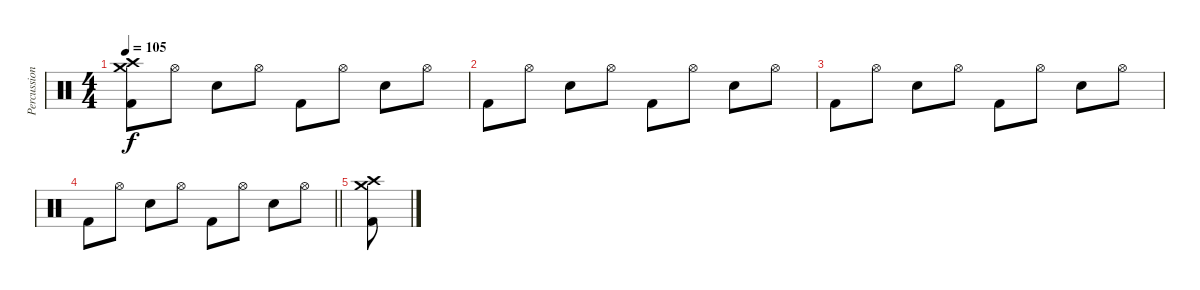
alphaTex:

\track ("Percussion" "Percussion") {instrument percussion}
\staff {score}
\articulation defaults
\ts (4 4)
\tempo 105
\clef neutral
\ks c
("Crash high (hit)" "Crash medium (hit)" "Kick (hit) 2").8{dy f} "Hi-Hat (open)".8 "Snare (hit) 2".8 "Hi-Hat (open)".8 "Kick (hit) 2".8 "Hi-Hat (open)".8 "Snare (hit) 2".8 "Hi-Hat (open)".8 |
"Kick (hit) 2".8 "Hi-Hat (open)".8 "Snare (hit) 2".8 "Hi-Hat (open)".8 "Kick (hit) 2".8 "Hi-Hat (open)".8 "Snare (hit) 2".8 "Hi-Hat (open)".8 |
"Kick (hit) 2".8 "Hi-Hat (open)".8 "Snare (hit) 2".8 "Hi-Hat (open)".8 "Kick (hit) 2".8 "Hi-Hat (open)".8 "Snare (hit) 2".8 "Hi-Hat (open)".8 |
\barLineRight lightlight "Kick (hit) 2".8 "Hi-Hat (open)".8 "Snare (hit) 2".8 "Hi-Hat (open)".8 "Kick (hit) 2".8 "Hi-Hat (open)".8 "Snare (hit) 2".8 "Hi-Hat (open)".8
|
("Crash high (hit)" "Crash medium (hit)" "Kick (hit) 2").8
